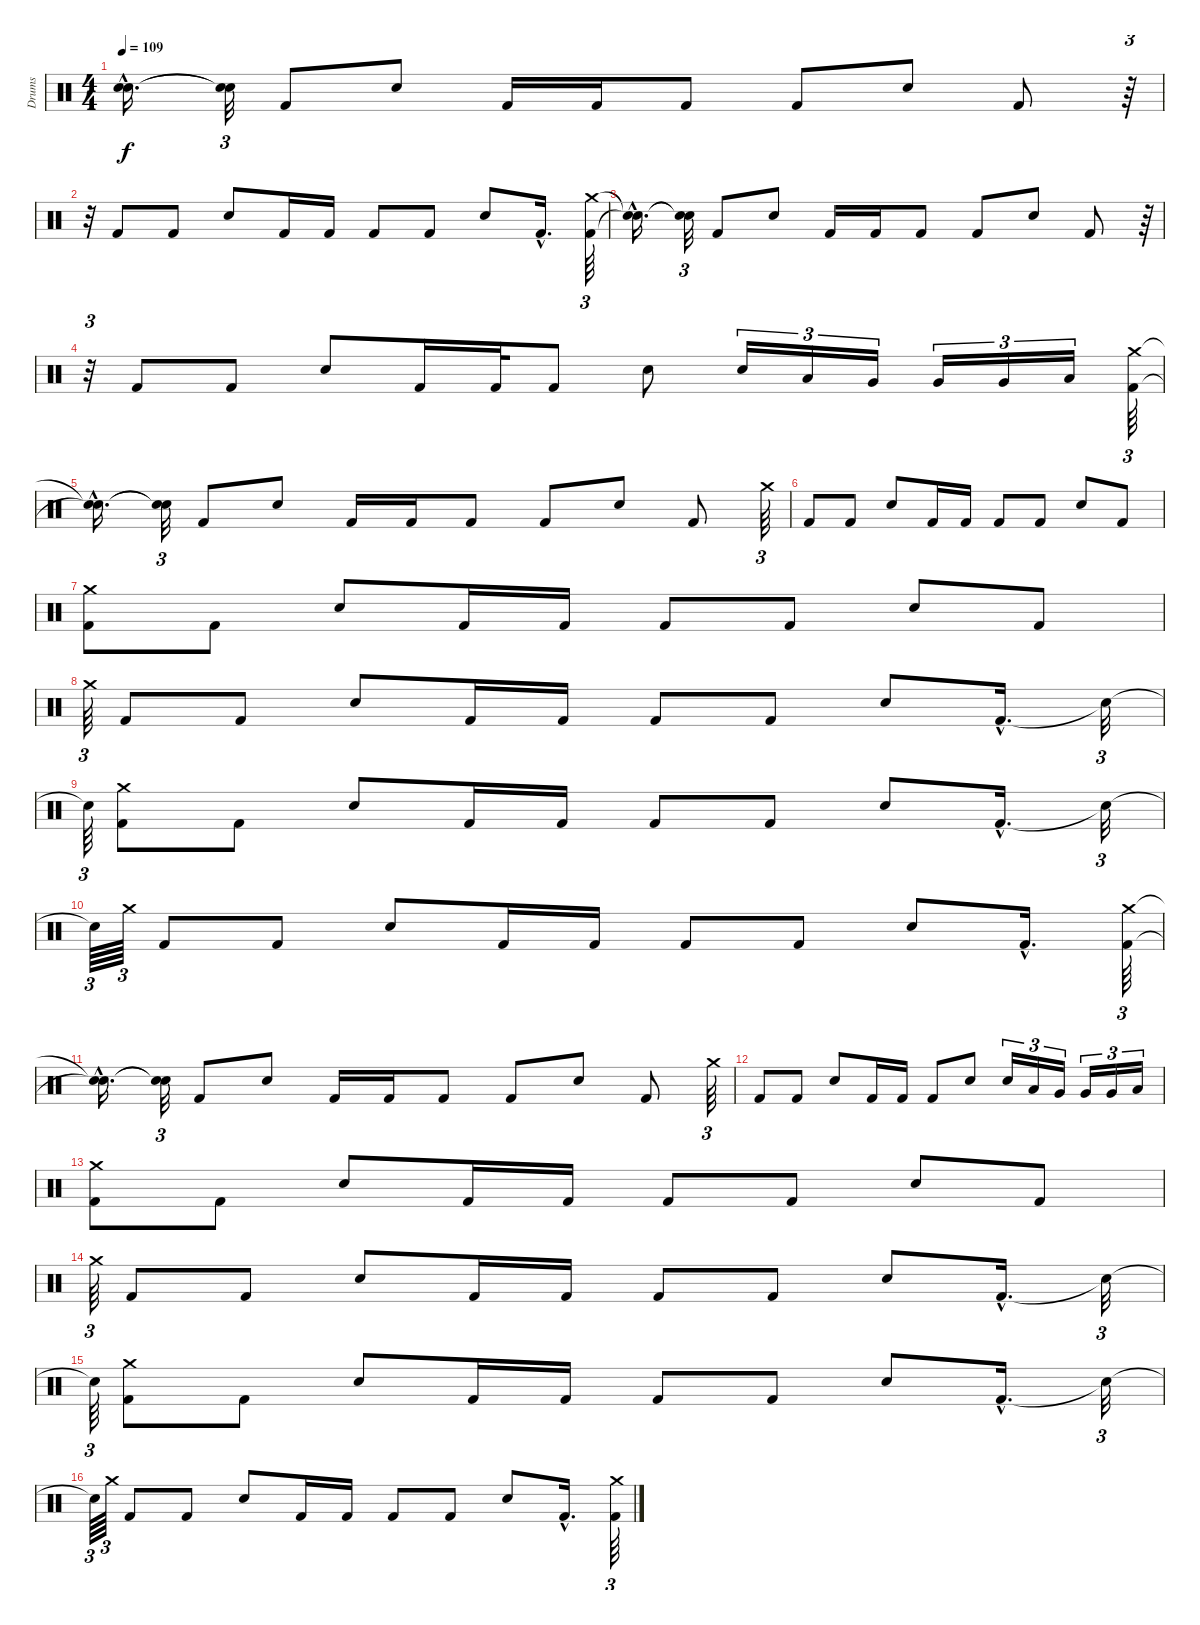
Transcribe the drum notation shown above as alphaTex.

\track ("Drums" "Drums") {instrument percussion}
\staff {score}
\articulation defaults
\ts (4 4)
\tempo 109
\clef neutral
\ks c
("Snare (hit)"{hac t} "Snare (hit)"{hac t}).16{d dy f} ("Snare (hit)"{t} "Snare (hit)"{t}).32{tu (3 2)} "Kick (hit) 2".8 "Snare (hit) 2".8 "Kick (hit) 2".16 "Kick (hit) 2".16 "Kick (hit) 2".8 "Kick (hit) 2".8 "Snare (hit) 2".8 "Kick (hit) 2".8 r.64{tu (3 2)} |
r.32{tu (3 2)} "Kick (hit) 2".8 "Kick (hit) 2".8 "Snare (hit) 2".8 "Kick (hit) 2".16 "Kick (hit) 2".16 "Kick (hit) 2".8 "Kick (hit) 2".8 "Snare (hit) 2".8 "Kick (hit) 2"{hac}.16{d} ("Crash medium (hit)" "Kick (hit) 2").64{tu (3 2)} |
("Snare (hit)"{hac t} "Snare (hit)"{hac t}).16{d} ("Snare (hit)"{t} "Snare (hit)"{t}).32{tu (3 2)} "Kick (hit) 2".8 "Snare (hit) 2".8 "Kick (hit) 2".16 "Kick (hit) 2".16 "Kick (hit) 2".8 "Kick (hit) 2".8 "Snare (hit) 2".8 "Kick (hit) 2".8 r.64{tu (3 2)} |
r.32{tu (3 2)} "Kick (hit) 2".8 "Kick (hit) 2".8 "Snare (hit) 2".8 "Kick (hit) 2".16 "Kick (hit) 2".32 "Kick (hit) 2".8 "Snare (hit) 2".8 "Snare (hit) 2".16{tu (3 2)} "Low Tom (hit)".16{tu (3 2)} "Very Low Tom (hit)".16{tu (3 2)} "Very Low Tom (hit)".16{tu (3 2)} "Very Low Tom (hit)".16{tu (3 2)} "Low Floor Tom (hit)".16{tu (3 2)} ("Crash medium (hit)" "Kick (hit) 2").64{tu (3 2)} |
("Snare (hit)"{hac t} "Snare (hit)"{hac t}).16{d} ("Snare (hit)"{t} "Snare (hit)"{t}).32{tu (3 2)} "Kick (hit) 2".8 "Snare (hit) 2".8 "Kick (hit) 2".16 "Kick (hit) 2".16 "Kick (hit) 2".8 "Kick (hit) 2".8 "Snare (hit) 2".8 "Kick (hit) 2".8 "Crash medium (hit)".64{tu (3 2)} |
"Kick (hit) 2".8 "Kick (hit) 2".8 "Snare (hit) 2".8 "Kick (hit) 2".16 "Kick (hit) 2".16 "Kick (hit) 2".8 "Kick (hit) 2".8 "Snare (hit) 2".8 "Kick (hit) 2".8 |
("Crash medium (hit)" "Kick (hit) 2").8 "Kick (hit) 2".8 "Snare (hit) 2".8 "Kick (hit) 2".16 "Kick (hit) 2".16 "Kick (hit) 2".8 "Kick (hit) 2".8 "Snare (hit) 2".8 "Kick (hit) 2".8 |
"Crash medium (hit)".64{tu (3 2)} "Kick (hit) 2".8 "Kick (hit) 2".8 "Snare (hit) 2".8 "Kick (hit) 2".16 "Kick (hit) 2".16 "Kick (hit) 2".8 "Kick (hit) 2".8 "Snare (hit) 2".8 "Kick (hit) 2"{hac}.16{d} "Snare (hit)"{t}.32{tu (3 2)} |
"Snare (hit)"{t}.64{tu (3 2)} ("Crash medium (hit)" "Kick (hit) 2").8 "Kick (hit) 2".8 "Snare (hit) 2".8 "Kick (hit) 2".16 "Kick (hit) 2".16 "Kick (hit) 2".8 "Kick (hit) 2".8 "Snare (hit) 2".8 "Kick (hit) 2"{hac}.16{d} "Snare (hit)"{t}.32{tu (3 2)} |
"Snare (hit)"{t}.64{tu (3 2)} "Crash medium (hit)".64{tu (3 2)} "Kick (hit) 2".8 "Kick (hit) 2".8 "Snare (hit) 2".8 "Kick (hit) 2".16 "Kick (hit) 2".16 "Kick (hit) 2".8 "Kick (hit) 2".8 "Snare (hit) 2".8 "Kick (hit) 2"{hac}.16{d} ("Crash medium (hit)" "Kick (hit) 2").64{tu (3 2)} |
("Snare (hit)"{hac t} "Snare (hit)"{hac t}).16{d} ("Snare (hit)"{t} "Snare (hit)"{t}).32{tu (3 2)} "Kick (hit) 2".8 "Snare (hit) 2".8 "Kick (hit) 2".16 "Kick (hit) 2".16 "Kick (hit) 2".8 "Kick (hit) 2".8 "Snare (hit) 2".8 "Kick (hit) 2".8 "Crash medium (hit)".64{tu (3 2)} |
"Kick (hit) 2".8 "Kick (hit) 2".8 "Snare (hit) 2".8 "Kick (hit) 2".16 "Kick (hit) 2".16 "Kick (hit) 2".8 "Snare (hit) 2".8 "Snare (hit) 2".16{tu (3 2)} "Low Tom (hit)".16{tu (3 2)} "Very Low Tom (hit)".16{tu (3 2)} "Very Low Tom (hit)".16{tu (3 2)} "Very Low Tom (hit)".16{tu (3 2)} "Low Floor Tom (hit)".16{tu (3 2)} |
("Crash medium (hit)" "Kick (hit) 2").8 "Kick (hit) 2".8 "Snare (hit) 2".8 "Kick (hit) 2".16 "Kick (hit) 2".16 "Kick (hit) 2".8 "Kick (hit) 2".8 "Snare (hit) 2".8 "Kick (hit) 2".8 |
"Crash medium (hit)".64{tu (3 2)} "Kick (hit) 2".8 "Kick (hit) 2".8 "Snare (hit) 2".8 "Kick (hit) 2".16 "Kick (hit) 2".16 "Kick (hit) 2".8 "Kick (hit) 2".8 "Snare (hit) 2".8 "Kick (hit) 2"{hac}.16{d} "Snare (hit)"{t}.32{tu (3 2)} |
"Snare (hit)"{t}.64{tu (3 2)} ("Crash medium (hit)" "Kick (hit) 2").8 "Kick (hit) 2".8 "Snare (hit) 2".8 "Kick (hit) 2".16 "Kick (hit) 2".16 "Kick (hit) 2".8 "Kick (hit) 2".8 "Snare (hit) 2".8 "Kick (hit) 2"{hac}.16{d} "Snare (hit)"{t}.32{tu (3 2)} |
"Snare (hit)"{t}.64{tu (3 2)} "Crash medium (hit)".64{tu (3 2)} "Kick (hit) 2".8 "Kick (hit) 2".8 "Snare (hit) 2".8 "Kick (hit) 2".16 "Kick (hit) 2".16 "Kick (hit) 2".8 "Kick (hit) 2".8 "Snare (hit) 2".8 "Kick (hit) 2"{hac}.16{d} ("Crash medium (hit)" "Kick (hit) 2").64{tu (3 2)}
